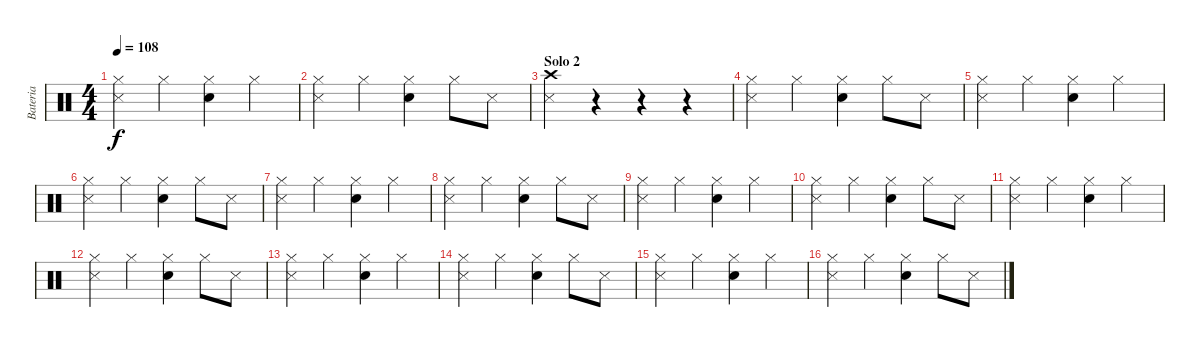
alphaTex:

\track ("Bateria" "Bateria") {instrument percussion}
\staff {score}
\articulation defaults
\ts (4 4)
\tempo 108
\clef neutral
\ks c
("Hi-Hat (closed)" "Snare (side stick) 3").4{dy f} "Hi-Hat (closed)".4 ("Snare (hit) 2" "Hi-Hat (closed)").4 "Hi-Hat (closed)".4 |
("Hi-Hat (closed)" "Snare (side stick) 3").4 "Hi-Hat (closed)".4 ("Snare (hit) 2" "Hi-Hat (closed)").4 "Hi-Hat (closed)".8 "Snare (side stick) 3".8 |
\section ("" "Solo 2")
("Crash high (hit)" "Snare (side stick) 3").4 r.4 r.4 r.4 |
("Hi-Hat (closed)" "Snare (side stick) 3").4 "Hi-Hat (closed)".4 ("Snare (hit) 2" "Hi-Hat (closed)").4 "Hi-Hat (closed)".8 "Snare (side stick) 3".8 |
("Hi-Hat (closed)" "Snare (side stick) 3").4 "Hi-Hat (closed)".4 ("Snare (hit) 2" "Hi-Hat (closed)").4 "Hi-Hat (closed)".4 |
("Hi-Hat (closed)" "Snare (side stick) 3").4 "Hi-Hat (closed)".4 ("Snare (hit) 2" "Hi-Hat (closed)").4 "Hi-Hat (closed)".8 "Snare (side stick) 3".8 |
("Hi-Hat (closed)" "Snare (side stick) 3").4 "Hi-Hat (closed)".4 ("Snare (hit) 2" "Hi-Hat (closed)").4 "Hi-Hat (closed)".4 |
("Hi-Hat (closed)" "Snare (side stick) 3").4 "Hi-Hat (closed)".4 ("Snare (hit) 2" "Hi-Hat (closed)").4 "Hi-Hat (closed)".8 "Snare (side stick) 3".8 |
("Hi-Hat (closed)" "Snare (side stick) 3").4 "Hi-Hat (closed)".4 ("Snare (hit) 2" "Hi-Hat (closed)").4 "Hi-Hat (closed)".4 |
("Hi-Hat (closed)" "Snare (side stick) 3").4 "Hi-Hat (closed)".4 ("Snare (hit) 2" "Hi-Hat (closed)").4 "Hi-Hat (closed)".8 "Snare (side stick) 3".8 |
("Hi-Hat (closed)" "Snare (side stick) 3").4 "Hi-Hat (closed)".4 ("Snare (hit) 2" "Hi-Hat (closed)").4 "Hi-Hat (closed)".4 |
("Hi-Hat (closed)" "Snare (side stick) 3").4 "Hi-Hat (closed)".4 ("Snare (hit) 2" "Hi-Hat (closed)").4 "Hi-Hat (closed)".8 "Snare (side stick) 3".8 |
("Hi-Hat (closed)" "Snare (side stick) 3").4 "Hi-Hat (closed)".4 ("Snare (hit) 2" "Hi-Hat (closed)").4 "Hi-Hat (closed)".4 |
("Hi-Hat (closed)" "Snare (side stick) 3").4 "Hi-Hat (closed)".4 ("Snare (hit) 2" "Hi-Hat (closed)").4 "Hi-Hat (closed)".8 "Snare (side stick) 3".8 |
("Hi-Hat (closed)" "Snare (side stick) 3").4 "Hi-Hat (closed)".4 ("Snare (hit) 2" "Hi-Hat (closed)").4 "Hi-Hat (closed)".4 |
("Hi-Hat (closed)" "Snare (side stick) 3").4 "Hi-Hat (closed)".4 ("Snare (hit) 2" "Hi-Hat (closed)").4 "Hi-Hat (closed)".8 "Snare (side stick) 3".8
